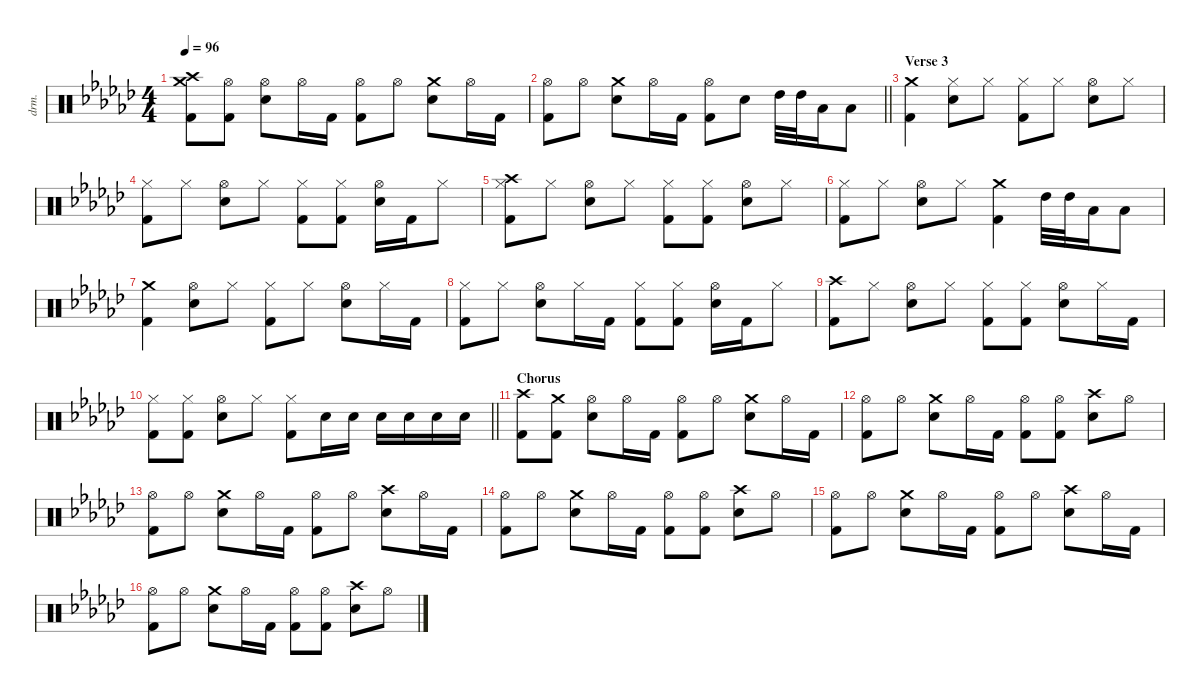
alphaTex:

\defaultSystemsLayout 4
\hideDynamics
\bracketExtendMode nobrackets
\otherSystemsTrackNameOrientation horizontal
\track ("Drums (Alex Van Halen)" "drm.") {instrument percussion}
\staff {score}
\articulation defaults
\ts (4 4)
\tempo 96
\clef neutral
\ks ebminor
("Crash medium (hit)"{acc forcenatural} "Crash high (hit)"{acc forcenatural} "Kick (hit) 2"{acc forcenatural}).8{dy fff beam Down} ("Hi-Hat (open)"{acc forcenatural} "Kick (hit) 2"{acc forcenatural}).8{dy ff beam Down} ("Hi-Hat (open)"{acc forcenatural} "Snare (hit) 2"{acc forcenatural}).8{dy fff beam Down} "Hi-Hat (open)"{acc forcenatural}.16{dy mf beam Down} "Kick (hit) 2"{acc forcenatural}.16{dy fff beam Down} ("Hi-Hat (open)"{acc forcenatural} "Kick (hit) 2"{acc forcenatural}).8{beam Down} "Hi-Hat (open)"{acc forcenatural}.8{dy ff beam Down} ("Crash medium (hit)"{acc forcenatural} "Snare (hit) 2"{acc forcenatural}).8{dy fff beam Down} "Hi-Hat (open)"{acc forcenatural}.16{dy pp beam Down} "Kick (hit) 2"{acc forcenatural}.16{dy fff beam Down} |
\barLineRight lightlight
("Hi-Hat (open)"{acc forcenatural} "Kick (hit) 2"{acc forcenatural}).8{dy ff beam Down} "Hi-Hat (open)"{acc forcenatural}.8{dy f beam Down} ("Snare (hit) 2"{acc forcenatural} "Crash medium (hit)"{acc forcenatural}).8{dy fff beam Down} "Hi-Hat (open)"{acc forcenatural}.16{dy mp beam Down} "Kick (hit) 2"{acc forcenatural}.16{dy fff beam Down} ("Kick (hit) 2"{acc forcenatural} "Hi-Hat (open)"{acc forcenatural}).8{beam Down} "Snare (hit) 2"{acc forcenatural}.8{beam Down} "High Tom (hit)"{acc forcenatural}.32{beam Down} "High Tom (hit)"{acc forcenatural}.32{beam Down} "Low Tom (hit)"{acc forcenatural}.16{beam Down} "Low Tom (hit)"{acc forcenatural}.8{beam Down} |
\section ("" "Verse 3")
("Kick (hit) 2"{acc forcenatural} "Crash medium (hit)"{acc forcenatural}).4{beam Down} ("Snare (hit) 2"{acc forcenatural} "Hi-Hat (closed)"{acc forcenatural}).8{beam Down} "Hi-Hat (closed)"{acc forcenatural}.8{dy ppp beam Down} ("Kick (hit) 2"{acc forcenatural} "Hi-Hat (closed)"{acc forcenatural}).8{dy fff beam Down} "Hi-Hat (closed)"{acc forcenatural}.8{dy mp beam Down} ("Hi-Hat (open)"{acc forcenatural} "Snare (hit) 2"{acc forcenatural}).8{dy fff beam Down} "Hi-Hat (closed)"{acc forcenatural}.8{dy f beam Down} |
("Hi-Hat (closed)"{acc forcenatural} "Kick (hit) 2"{acc forcenatural}).8{beam Down} "Hi-Hat (closed)"{acc forcenatural}.8{dy mp beam Down} ("Hi-Hat (open)"{acc forcenatural} "Snare (hit) 2"{acc forcenatural}).8{dy fff beam Down} "Hi-Hat (closed)"{acc forcenatural}.8{dy mp beam Down} ("Kick (hit) 2"{acc forcenatural} "Hi-Hat (closed)"{acc forcenatural}).8{dy fff beam Down} ("Kick (hit) 2"{acc forcenatural} "Hi-Hat (closed)"{acc forcenatural}).8{beam Down} ("Snare (hit) 2"{acc forcenatural} "Hi-Hat (open)"{acc forcenatural}).16{beam Down} "Kick (hit) 2"{acc forcenatural}.16{beam Down} "Hi-Hat (closed)"{acc forcenatural}.8{dy mf beam Down} |
("Hi-Hat (closed)"{acc forcenatural} "Crash high (hit)"{acc forcenatural} "Kick (hit) 2"{acc forcenatural}).8{dy fff beam Down} "Hi-Hat (closed)"{acc forcenatural}.8{dy mp beam Down} ("Snare (hit) 2"{acc forcenatural} "Hi-Hat (open)"{acc forcenatural}).8{dy fff beam Down} "Hi-Hat (closed)"{acc forcenatural}.8{dy mf beam Down} ("Hi-Hat (closed)"{acc forcenatural} "Kick (hit) 2"{acc forcenatural}).8{dy fff beam Down} ("Hi-Hat (closed)"{acc forcenatural} "Kick (hit) 2"{acc forcenatural}).8{dy mf beam Down} ("Snare (hit) 2"{acc forcenatural} "Hi-Hat (open)"{acc forcenatural}).8{dy fff beam Down} "Hi-Hat (closed)"{acc forcenatural}.8{dy ff beam Down} |
("Hi-Hat (closed)"{acc forcenatural} "Kick (hit) 2"{acc forcenatural}).8{dy fff beam Down} "Hi-Hat (closed)"{acc forcenatural}.8{dy mp beam Down} ("Hi-Hat (open)"{acc forcenatural} "Snare (hit) 2"{acc forcenatural}).8{dy fff beam Down} "Hi-Hat (closed)"{acc forcenatural}.8{dy mf beam Down} ("Crash medium (hit)"{acc forcenatural} "Kick (hit) 2"{acc forcenatural}).4{dy fff beam Down} "High Tom (hit)"{acc forcenatural}.32{dy f beam Down} "High Tom (hit)"{acc forcenatural}.32{beam Down} "Low Tom (hit)"{acc forcenatural}.16{beam Down} "Low Tom (hit)"{acc forcenatural}.8{beam Down} |
("Kick (hit) 2"{acc forcenatural} "Crash medium (hit)"{acc forcenatural}).4{dy fff beam Down} ("Hi-Hat (open)"{acc forcenatural} "Snare (hit) 2"{acc forcenatural}).8{beam Down} "Hi-Hat (closed)"{acc forcenatural}.8{dy p beam Down} ("Kick (hit) 2"{acc forcenatural} "Hi-Hat (closed)"{acc forcenatural}).8{dy fff beam Down} "Hi-Hat (closed)"{acc forcenatural}.8{dy pp beam Down} ("Hi-Hat (open)"{acc forcenatural} "Snare (hit) 2"{acc forcenatural}).8{dy fff beam Down} "Hi-Hat (closed)"{acc forcenatural}.16{dy f beam Down} "Kick (hit) 2"{acc forcenatural}.16{dy fff beam Down} |
("Hi-Hat (closed)"{acc forcenatural} "Kick (hit) 2"{acc forcenatural}).8{beam Down} "Hi-Hat (closed)"{acc forcenatural}.8{dy f beam Down} ("Snare (hit) 2"{acc forcenatural} "Hi-Hat (open)"{acc forcenatural}).8{dy fff beam Down} "Hi-Hat (closed)"{acc forcenatural}.16{dy mf beam Down} "Kick (hit) 2"{acc forcenatural}.16{dy fff beam Down} ("Kick (hit) 2"{acc forcenatural} "Hi-Hat (closed)"{acc forcenatural}).8{dy ff beam Down} ("Hi-Hat (closed)"{acc forcenatural} "Kick (hit) 2"{acc forcenatural}).8{beam Down} ("Snare (hit) 2"{acc forcenatural} "Hi-Hat (open)"{acc forcenatural}).16{beam Down} "Kick (hit) 2"{acc forcenatural}.16{beam Down} "Hi-Hat (closed)"{acc forcenatural}.8{beam Down} |
("Kick (hit) 2"{acc forcenatural} "Crash high (hit)"{acc forcenatural}).8{beam Down} "Hi-Hat (closed)"{acc forcenatural}.8{beam Down} ("Snare (hit) 2"{acc forcenatural} "Hi-Hat (open)"{acc forcenatural}).8{dy fff beam Down} "Hi-Hat (closed)"{acc forcenatural}.8{dy mf beam Down} ("Kick (hit) 2"{acc forcenatural} "Hi-Hat (closed)"{acc forcenatural}).8{dy fff beam Down} ("Kick (hit) 2"{acc forcenatural} "Hi-Hat (closed)"{acc forcenatural}).8{beam Down} ("Hi-Hat (open)"{acc forcenatural} "Snare (hit) 2"{acc forcenatural}).8{beam Down} "Hi-Hat (closed)"{acc forcenatural}.16{dy mp beam Down} "Kick (hit) 2"{acc forcenatural}.16{dy fff beam Down} |
\barLineRight lightlight
("Kick (hit) 2"{acc forcenatural} "Hi-Hat (closed)"{acc forcenatural}).8{beam Down} ("Kick (hit) 2"{acc forcenatural} "Hi-Hat (closed)"{acc forcenatural}).8{dy ff beam Down} ("Snare (hit) 2"{acc forcenatural} "Hi-Hat (open)"{acc forcenatural}).8{dy fff beam Down} "Hi-Hat (closed)"{acc forcenatural}.8{dy mf beam Down} ("Kick (hit) 2"{acc forcenatural} "Hi-Hat (closed)"{acc forcenatural}).8{dy fff beam Down} "Snare (hit) 2"{acc forcenatural}.16{dy f beam Down} "Snare (hit) 2"{acc forcenatural}.16{dy fff beam Down} "Snare (hit) 2"{acc forcenatural}.16{beam Down} "Snare (hit) 2"{acc forcenatural}.16{beam Down} "Snare (hit) 2"{acc forcenatural}.16{dy ff beam Down} "Snare (hit) 2"{acc forcenatural}.16{dy fff beam Down} |
\section ("" "Chorus")
("Crash high (hit)"{acc forcenatural} "Kick (hit) 2"{acc forcenatural}).8{beam Down} ("Crash medium (hit)"{acc forcenatural} "Kick (hit) 2"{acc forcenatural}).8{beam Down} ("Hi-Hat (open)"{acc forcenatural} "Snare (hit) 2"{acc forcenatural}).8{beam Down} "Hi-Hat (open)"{acc forcenatural}.16{dy pp beam Down} "Kick (hit) 2"{acc forcenatural}.16{dy fff beam Down} ("Kick (hit) 2"{acc forcenatural} "Hi-Hat (open)"{acc forcenatural}).8{beam Down} "Hi-Hat (open)"{acc forcenatural}.8{dy mp beam Down} ("Snare (hit) 2"{acc forcenatural} "Crash medium (hit)"{acc forcenatural}).8{dy fff beam Down} "Hi-Hat (open)"{acc forcenatural}.16{beam Down} "Kick (hit) 2"{acc forcenatural}.16{beam Down} |
("Hi-Hat (open)"{acc forcenatural} "Kick (hit) 2"{acc forcenatural}).8{beam Down} "Hi-Hat (open)"{acc forcenatural}.8{dy ppp beam Down} ("Snare (hit) 2"{acc forcenatural} "Crash medium (hit)"{acc forcenatural}).8{dy fff beam Down} "Hi-Hat (open)"{acc forcenatural}.16{dy p beam Down} "Kick (hit) 2"{acc forcenatural}.16{dy fff beam Down} ("Hi-Hat (open)"{acc forcenatural} "Kick (hit) 2"{acc forcenatural}).8{beam Down} ("Kick (hit) 2"{acc forcenatural} "Hi-Hat (open)"{acc forcenatural}).8{beam Down} ("Crash high (hit)"{acc forcenatural} "Snare (hit) 2"{acc forcenatural}).8{beam Down} "Hi-Hat (open)"{acc forcenatural}.8{dy p beam Down} |
("Kick (hit) 2"{acc forcenatural} "Hi-Hat (open)"{acc forcenatural}).8{dy fff beam Down} "Hi-Hat (open)"{acc forcenatural}.8{dy p beam Down} ("Crash medium (hit)"{acc forcenatural} "Snare (hit) 2"{acc forcenatural}).8{dy fff beam Down} "Hi-Hat (open)"{acc forcenatural}.16{beam Down} "Kick (hit) 2"{acc forcenatural}.16{beam Down} ("Kick (hit) 2"{acc forcenatural} "Hi-Hat (open)"{acc forcenatural}).8{beam Down} "Hi-Hat (open)"{acc forcenatural}.8{dy ff beam Down} ("Crash high (hit)"{acc forcenatural} "Snare (hit) 2"{acc forcenatural}).8{dy fff beam Down} "Hi-Hat (open)"{acc forcenatural}.16{dy mf beam Down} "Kick (hit) 2"{acc forcenatural}.16{dy fff beam Down} |
("Kick (hit) 2"{acc forcenatural} "Hi-Hat (open)"{acc forcenatural}).8{beam Down} "Hi-Hat (open)"{acc forcenatural}.8{dy mf beam Down} ("Snare (hit) 2"{acc forcenatural} "Crash medium (hit)"{acc forcenatural}).8{dy fff beam Down} "Hi-Hat (open)"{acc forcenatural}.16{dy p beam Down} "Kick (hit) 2"{acc forcenatural}.16{dy fff beam Down} ("Kick (hit) 2"{acc forcenatural} "Hi-Hat (open)"{acc forcenatural}).8{beam Down} ("Hi-Hat (open)"{acc forcenatural} "Kick (hit) 2"{acc forcenatural}).8{dy p beam Down} ("Crash high (hit)"{acc forcenatural} "Snare (hit) 2"{acc forcenatural}).8{dy fff beam Down} "Hi-Hat (open)"{acc forcenatural}.8{dy f beam Down} |
("Kick (hit) 2"{acc forcenatural} "Hi-Hat (open)"{acc forcenatural}).8{dy fff beam Down} "Hi-Hat (open)"{acc forcenatural}.8{beam Down} ("Crash medium (hit)"{acc forcenatural} "Snare (hit) 2"{acc forcenatural}).8{beam Down} "Hi-Hat (open)"{acc forcenatural}.16{dy mf beam Down} "Kick (hit) 2"{acc forcenatural}.16{dy fff beam Down} ("Kick (hit) 2"{acc forcenatural} "Hi-Hat (open)"{acc forcenatural}).8{beam Down} "Hi-Hat (open)"{acc forcenatural}.8{dy mf beam Down} ("Crash high (hit)"{acc forcenatural} "Snare (hit) 2"{acc forcenatural}).8{dy fff beam Down} "Hi-Hat (open)"{acc forcenatural}.16{dy f beam Down} "Kick (hit) 2"{acc forcenatural}.16{dy fff beam Down} |
("Kick (hit) 2"{acc forcenatural} "Hi-Hat (open)"{acc forcenatural}).8{beam Down} "Hi-Hat (open)"{acc forcenatural}.8{dy ppp beam Down} ("Snare (hit) 2"{acc forcenatural} "Crash medium (hit)"{acc forcenatural}).8{dy fff beam Down} "Hi-Hat (open)"{acc forcenatural}.16{dy mp beam Down} "Kick (hit) 2"{acc forcenatural}.16{dy fff beam Down} ("Hi-Hat (open)"{acc forcenatural} "Kick (hit) 2"{acc forcenatural}).8{dy mf beam Down} ("Kick (hit) 2"{acc forcenatural} "Hi-Hat (open)"{acc forcenatural}).8{dy fff beam Down} ("Crash high (hit)"{acc forcenatural} "Snare (hit) 2"{acc forcenatural}).8{beam Down} "Hi-Hat (open)"{acc forcenatural}.8{dy mf beam Down}
